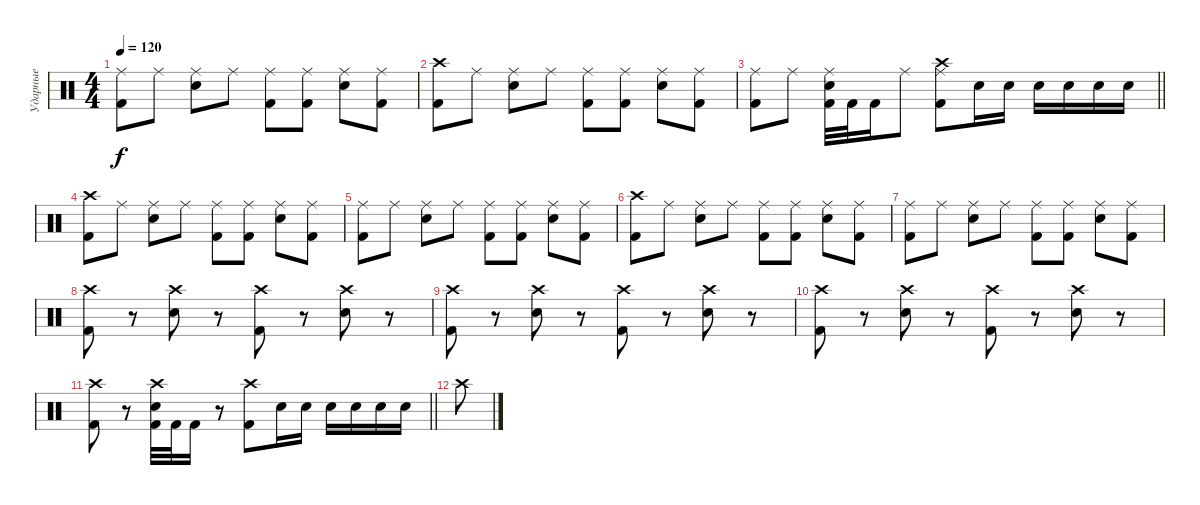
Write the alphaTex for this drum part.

\track ("Ударные" "Ударные") {instrument percussion}
\staff {score}
\articulation defaults
\ts (4 4)
\tempo 120
\clef neutral
\ks c
("Ride (middle)" "Kick (hit) 2").8{dy f} "Ride (middle)".8 ("Ride (middle)" "Electric Snare (hit)").8 "Ride (middle)".8 ("Ride (middle)" "Kick (hit) 2").8 ("Ride (middle)" "Kick (hit) 2").8 ("Ride (middle)" "Electric Snare (hit)").8 ("Ride (middle)" "Kick (hit) 2").8 |
("Crash high (hit)" "Kick (hit) 2").8 "Ride (middle)".8 ("Ride (middle)" "Electric Snare (hit)").8 "Ride (middle)".8 ("Ride (middle)" "Kick (hit) 2").8 ("Ride (middle)" "Kick (hit) 2").8 ("Ride (middle)" "Electric Snare (hit)").8 ("Ride (middle)" "Kick (hit) 2").8 |
\barLineRight lightlight
("Ride (middle)" "Kick (hit) 2").8 "Ride (middle)".8 ("Ride (middle)" "Electric Snare (hit)" "Kick (hit) 2").32 "Kick (hit) 2".32 "Kick (hit) 2".16 "Ride (middle)".8 ("Crash high (hit)" "Ride (middle)" "Kick (hit) 2").8 "Electric Snare (hit)".16 "Electric Snare (hit)".16 "Electric Snare (hit)".16 "Electric Snare (hit)".16 "Electric Snare (hit)".16 "Electric Snare (hit)".16 |
("Crash high (hit)" "Kick (hit) 2").8 "Ride (middle)".8 ("Ride (middle)" "Electric Snare (hit)").8 "Ride (middle)".8 ("Ride (middle)" "Kick (hit) 2").8 ("Ride (middle)" "Kick (hit) 2").8 ("Ride (middle)" "Electric Snare (hit)").8 ("Ride (middle)" "Kick (hit) 2").8 |
("Ride (middle)" "Kick (hit) 2").8 "Ride (middle)".8 ("Ride (middle)" "Electric Snare (hit)").8 "Ride (middle)".8 ("Ride (middle)" "Kick (hit) 2").8 ("Ride (middle)" "Kick (hit) 2").8 ("Ride (middle)" "Electric Snare (hit)").8 ("Ride (middle)" "Kick (hit) 2").8 |
("Crash high (hit)" "Kick (hit) 2").8 "Ride (middle)".8 ("Ride (middle)" "Electric Snare (hit)").8 "Ride (middle)".8 ("Ride (middle)" "Kick (hit) 2").8 ("Ride (middle)" "Kick (hit) 2").8 ("Ride (middle)" "Electric Snare (hit)").8 ("Ride (middle)" "Kick (hit) 2").8 |
("Ride (middle)" "Kick (hit) 2").8 "Ride (middle)".8 ("Ride (middle)" "Electric Snare (hit)").8 "Ride (middle)".8 ("Ride (middle)" "Kick (hit) 2").8 ("Ride (middle)" "Kick (hit) 2").8 ("Ride (middle)" "Electric Snare (hit)").8 ("Ride (middle)" "Kick (hit) 2").8 |
("Crash high (hit)" "Kick (hit) 2").8 r.8 ("Crash high (hit)" "Electric Snare (hit)").8 r.8 ("Crash high (hit)" "Kick (hit) 2").8 r.8 ("Crash high (hit)" "Electric Snare (hit)").8 r.8 |
("Crash high (hit)" "Kick (hit) 2").8 r.8 ("Crash high (hit)" "Electric Snare (hit)").8 r.8 ("Crash high (hit)" "Kick (hit) 2").8 r.8 ("Crash high (hit)" "Electric Snare (hit)").8 r.8 |
("Crash high (hit)" "Kick (hit) 2").8 r.8 ("Crash high (hit)" "Electric Snare (hit)").8 r.8 ("Crash high (hit)" "Kick (hit) 2").8 r.8 ("Crash high (hit)" "Electric Snare (hit)").8 r.8 |
\barLineRight lightlight
("Crash high (hit)" "Kick (hit) 2").8 r.8 ("Crash high (hit)" "Electric Snare (hit)" "Kick (hit) 2").32 "Kick (hit) 2".32 "Kick (hit) 2".16 r.8 ("Crash high (hit)" "Kick (hit) 2").8 "Electric Snare (hit)".16 "Electric Snare (hit)".16 "Electric Snare (hit)".16 "Electric Snare (hit)".16 "Electric Snare (hit)".16 "Electric Snare (hit)".16 |
"Crash high (hit)".8
